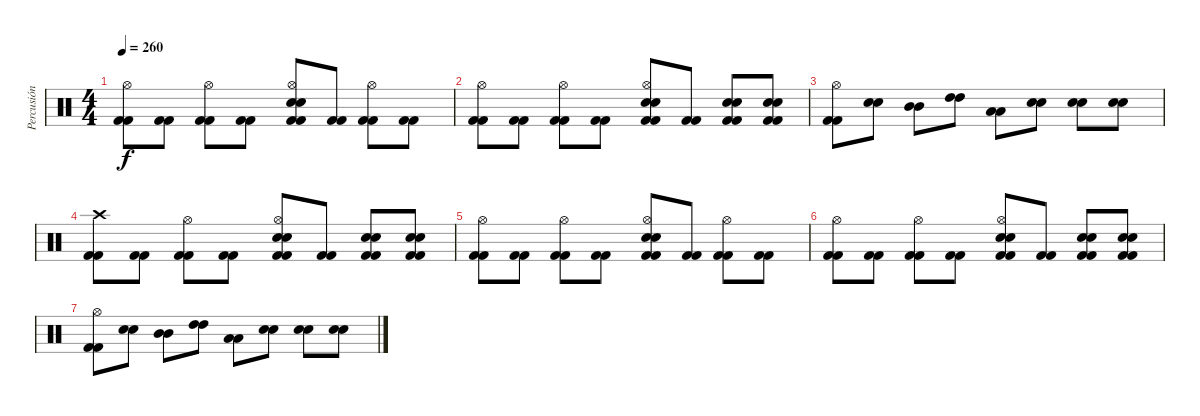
\track ("Percusión" "Percusión") {instrument percussion}
\staff {score}
\articulation defaults
\ts (4 4)
\tempo 260
\clef neutral
\ks c
("Kick (hit) 2" "Kick (hit) 2" "Hi-Hat (open)").8{dy f} ("Kick (hit) 2" "Kick (hit) 2").8 ("Kick (hit) 2" "Kick (hit) 2" "Hi-Hat (open)").8 ("Kick (hit) 2" "Kick (hit) 2").8 ("Kick (hit) 2" "Kick (hit) 2" "Electric Snare (hit)" "Electric Snare (hit)" "Hi-Hat (open)").8 ("Kick (hit) 2" "Kick (hit) 2").8 ("Kick (hit) 2" "Kick (hit) 2" "Hi-Hat (open)").8 ("Kick (hit) 2" "Kick (hit) 2").8 |
("Kick (hit) 2" "Kick (hit) 2" "Hi-Hat (open)").8 ("Kick (hit) 2" "Kick (hit) 2").8 ("Kick (hit) 2" "Kick (hit) 2" "Hi-Hat (open)").8 ("Kick (hit) 2" "Kick (hit) 2").8 ("Kick (hit) 2" "Kick (hit) 2" "Electric Snare (hit)" "Electric Snare (hit)" "Hi-Hat (open)").8 ("Kick (hit) 2" "Kick (hit) 2").8 ("Kick (hit) 2" "Kick (hit) 2" "Electric Snare (hit)" "Electric Snare (hit)").8 ("Kick (hit) 2" "Kick (hit) 2" "Electric Snare (hit)" "Electric Snare (hit)").8 |
("Kick (hit) 2" "Kick (hit) 2" "Hi-Hat (open)").8 ("Electric Snare (hit)" "Electric Snare (hit)").8 ("Mid Tom (hit)" "Mid Tom (hit)").8 ("High Tom (hit)" "High Tom (hit)").8 ("Low Floor Tom (hit)" "Low Floor Tom (hit)").8 ("Electric Snare (hit)" "Electric Snare (hit)").8 ("Electric Snare (hit)" "Electric Snare (hit)").8 ("Electric Snare (hit)" "Electric Snare (hit)").8 |
("Kick (hit) 2" "Kick (hit) 2" "Crash high (hit)").8 ("Kick (hit) 2" "Kick (hit) 2").8 ("Kick (hit) 2" "Kick (hit) 2" "Hi-Hat (open)").8 ("Kick (hit) 2" "Kick (hit) 2").8 ("Kick (hit) 2" "Kick (hit) 2" "Electric Snare (hit)" "Electric Snare (hit)" "Hi-Hat (open)").8 ("Kick (hit) 2" "Kick (hit) 2").8 ("Kick (hit) 2" "Kick (hit) 2" "Electric Snare (hit)" "Electric Snare (hit)").8 ("Kick (hit) 2" "Kick (hit) 2" "Electric Snare (hit)" "Electric Snare (hit)").8 |
("Kick (hit) 2" "Kick (hit) 2" "Hi-Hat (open)").8 ("Kick (hit) 2" "Kick (hit) 2").8 ("Kick (hit) 2" "Kick (hit) 2" "Hi-Hat (open)").8 ("Kick (hit) 2" "Kick (hit) 2").8 ("Kick (hit) 2" "Kick (hit) 2" "Electric Snare (hit)" "Electric Snare (hit)" "Hi-Hat (open)").8 ("Kick (hit) 2" "Kick (hit) 2").8 ("Kick (hit) 2" "Kick (hit) 2" "Hi-Hat (open)").8 ("Kick (hit) 2" "Kick (hit) 2").8 |
("Kick (hit) 2" "Kick (hit) 2" "Hi-Hat (open)").8 ("Kick (hit) 2" "Kick (hit) 2").8 ("Kick (hit) 2" "Kick (hit) 2" "Hi-Hat (open)").8 ("Kick (hit) 2" "Kick (hit) 2").8 ("Kick (hit) 2" "Kick (hit) 2" "Electric Snare (hit)" "Electric Snare (hit)" "Hi-Hat (open)").8 ("Kick (hit) 2" "Kick (hit) 2").8 ("Kick (hit) 2" "Kick (hit) 2" "Electric Snare (hit)" "Electric Snare (hit)").8 ("Kick (hit) 2" "Kick (hit) 2" "Electric Snare (hit)" "Electric Snare (hit)").8 |
("Kick (hit) 2" "Kick (hit) 2" "Hi-Hat (open)").8 ("Electric Snare (hit)" "Electric Snare (hit)").8 ("Mid Tom (hit)" "Mid Tom (hit)").8 ("High Tom (hit)" "High Tom (hit)").8 ("Low Floor Tom (hit)" "Low Floor Tom (hit)").8 ("Electric Snare (hit)" "Electric Snare (hit)").8 ("Electric Snare (hit)" "Electric Snare (hit)").8 ("Electric Snare (hit)" "Electric Snare (hit)").8
